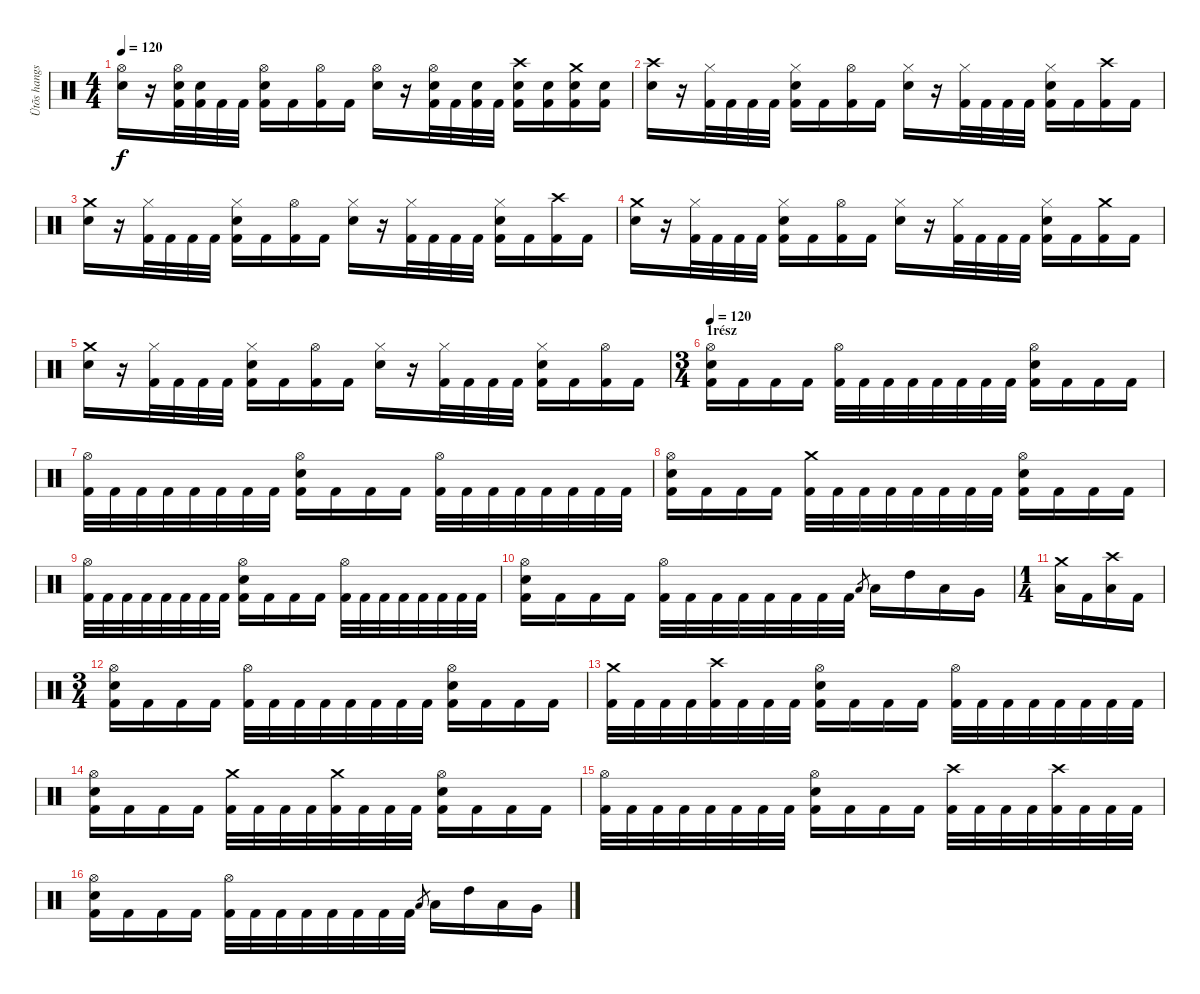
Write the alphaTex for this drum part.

\track ("Ütõs hangszer" "Ütõs hangs") {instrument percussion}
\staff {score}
\articulation defaults
\ts (4 4)
\tempo 120
\clef neutral
\ks c
("Hi-Hat (open)" "Electric Snare (hit)").16{dy f} r.16 ("Hi-Hat (open)" "Electric Snare (hit)" "Kick (hit) 2").32 ("Electric Snare (hit)" "Kick (hit) 2").32 "Kick (hit) 2".32 "Kick (hit) 2".32 ("Hi-Hat (open)" "Electric Snare (hit)" "Kick (hit) 2").16 "Kick (hit) 2".16 ("Hi-Hat (open)" "Kick (hit) 2").16 "Kick (hit) 2".16 ("Hi-Hat (open)" "Electric Snare (hit)").16 r.16 ("Hi-Hat (open)" "Electric Snare (hit)" "Kick (hit) 2").32 "Kick (hit) 2".32 ("Electric Snare (hit)" "Kick (hit) 2").32 "Kick (hit) 2".32 ("Crash high (hit)" "Electric Snare (hit)" "Kick (hit) 2").16 ("Electric Snare (hit)" "Kick (hit) 2").16 ("Crash medium (hit)" "Electric Snare (hit)" "Kick (hit) 2").16 ("Electric Snare (hit)" "Kick (hit) 2").16 |
("Crash high (hit)" "Electric Snare (hit)").16 r.16 ("Hi-Hat (closed)" "Kick (hit) 2").32 "Kick (hit) 2".32 "Kick (hit) 2".32 "Kick (hit) 2".32 ("Hi-Hat (closed)" "Electric Snare (hit)" "Kick (hit) 2").16 "Kick (hit) 2".16 ("Hi-Hat (open)" "Kick (hit) 2").16 "Kick (hit) 2".16 ("Hi-Hat (closed)" "Electric Snare (hit)").16 r.16 ("Hi-Hat (closed)" "Kick (hit) 2").32 "Kick (hit) 2".32 "Kick (hit) 2".32 "Kick (hit) 2".32 ("Hi-Hat (closed)" "Electric Snare (hit)" "Kick (hit) 2").16 "Kick (hit) 2".16 ("Crash high (hit)" "Kick (hit) 2").16 "Kick (hit) 2".16 |
("Crash medium (hit)" "Electric Snare (hit)").16 r.16 ("Hi-Hat (closed)" "Kick (hit) 2").32 "Kick (hit) 2".32 "Kick (hit) 2".32 "Kick (hit) 2".32 ("Hi-Hat (closed)" "Electric Snare (hit)" "Kick (hit) 2").16 "Kick (hit) 2".16 ("Hi-Hat (open)" "Kick (hit) 2").16 "Kick (hit) 2".16 ("Hi-Hat (closed)" "Electric Snare (hit)").16 r.16 ("Hi-Hat (closed)" "Kick (hit) 2").32 "Kick (hit) 2".32 "Kick (hit) 2".32 "Kick (hit) 2".32 ("Hi-Hat (closed)" "Electric Snare (hit)" "Kick (hit) 2").16 "Kick (hit) 2".16 ("Crash high (hit)" "Kick (hit) 2").16 "Kick (hit) 2".16 |
("Crash medium (hit)" "Electric Snare (hit)").16 r.16 ("Hi-Hat (closed)" "Kick (hit) 2").32 "Kick (hit) 2".32 "Kick (hit) 2".32 "Kick (hit) 2".32 ("Hi-Hat (closed)" "Electric Snare (hit)" "Kick (hit) 2").16 "Kick (hit) 2".16 ("Hi-Hat (open)" "Kick (hit) 2").16 "Kick (hit) 2".16 ("Hi-Hat (closed)" "Electric Snare (hit)").16 r.16 ("Hi-Hat (closed)" "Kick (hit) 2").32 "Kick (hit) 2".32 "Kick (hit) 2".32 "Kick (hit) 2".32 ("Hi-Hat (closed)" "Electric Snare (hit)" "Kick (hit) 2").16 "Kick (hit) 2".16 ("Crash medium (hit)" "Kick (hit) 2").16 "Kick (hit) 2".16 |
("Crash medium (hit)" "Electric Snare (hit)").16 r.16 ("Hi-Hat (closed)" "Kick (hit) 2").32 "Kick (hit) 2".32 "Kick (hit) 2".32 "Kick (hit) 2".32 ("Hi-Hat (closed)" "Electric Snare (hit)" "Kick (hit) 2").16 "Kick (hit) 2".16 ("Hi-Hat (open)" "Kick (hit) 2").16 "Kick (hit) 2".16 ("Hi-Hat (closed)" "Electric Snare (hit)").16 r.16 ("Hi-Hat (closed)" "Kick (hit) 2").32 "Kick (hit) 2".32 "Kick (hit) 2".32 "Kick (hit) 2".32 ("Hi-Hat (closed)" "Electric Snare (hit)" "Kick (hit) 2").16 "Kick (hit) 2".16 ("Hi-Hat (open)" "Kick (hit) 2").16 "Kick (hit) 2".16 |
\ts (3 4)
\section ("" "1rész")
\tempo 120
("Hi-Hat (open)" "Electric Snare (hit)" "Kick (hit) 2").16 "Kick (hit) 2".16 "Kick (hit) 2".16 "Kick (hit) 2".16 ("Hi-Hat (open)" "Kick (hit) 2").32 "Kick (hit) 2".32 "Kick (hit) 2".32 "Kick (hit) 2".32 "Kick (hit) 2".32 "Kick (hit) 2".32 "Kick (hit) 2".32 "Kick (hit) 2".32 ("Hi-Hat (open)" "Electric Snare (hit)" "Kick (hit) 2").16 "Kick (hit) 2".16 "Kick (hit) 2".16 "Kick (hit) 2".16 |
("Hi-Hat (open)" "Kick (hit) 2").32 "Kick (hit) 2".32 "Kick (hit) 2".32 "Kick (hit) 2".32 "Kick (hit) 2".32 "Kick (hit) 2".32 "Kick (hit) 2".32 "Kick (hit) 2".32 ("Hi-Hat (open)" "Electric Snare (hit)" "Kick (hit) 2").16 "Kick (hit) 2".16 "Kick (hit) 2".16 "Kick (hit) 2".16 ("Hi-Hat (open)" "Kick (hit) 2").32 "Kick (hit) 2".32 "Kick (hit) 2".32 "Kick (hit) 2".32 "Kick (hit) 2".32 "Kick (hit) 2".32 "Kick (hit) 2".32 "Kick (hit) 2".32 |
("Hi-Hat (open)" "Electric Snare (hit)" "Kick (hit) 2").16 "Kick (hit) 2".16 "Kick (hit) 2".16 "Kick (hit) 2".16 ("Crash medium (hit)" "Kick (hit) 2").32 "Kick (hit) 2".32 "Kick (hit) 2".32 "Kick (hit) 2".32 "Kick (hit) 2".32 "Kick (hit) 2".32 "Kick (hit) 2".32 "Kick (hit) 2".32 ("Hi-Hat (open)" "Electric Snare (hit)" "Kick (hit) 2").16 "Kick (hit) 2".16 "Kick (hit) 2".16 "Kick (hit) 2".16 |
("Hi-Hat (open)" "Kick (hit) 2").32 "Kick (hit) 2".32 "Kick (hit) 2".32 "Kick (hit) 2".32 "Kick (hit) 2".32 "Kick (hit) 2".32 "Kick (hit) 2".32 "Kick (hit) 2".32 ("Hi-Hat (open)" "Electric Snare (hit)" "Kick (hit) 2").16 "Kick (hit) 2".16 "Kick (hit) 2".16 "Kick (hit) 2".16 ("Hi-Hat (open)" "Kick (hit) 2").32 "Kick (hit) 2".32 "Kick (hit) 2".32 "Kick (hit) 2".32 "Kick (hit) 2".32 "Kick (hit) 2".32 "Kick (hit) 2".32 "Kick (hit) 2".32 |
("Hi-Hat (open)" "Electric Snare (hit)" "Kick (hit) 2").16 "Kick (hit) 2".16 "Kick (hit) 2".16 "Kick (hit) 2".16 ("Hi-Hat (open)" "Kick (hit) 2").32 "Kick (hit) 2".32 "Kick (hit) 2".32 "Kick (hit) 2".32 "Kick (hit) 2".32 "Kick (hit) 2".32 "Kick (hit) 2".32 "Kick (hit) 2".32 "Low Tom (hit)".8{gr} "Low Tom (hit)".16 "High Tom (hit)".16 "Low Tom (hit)".16 "Very Low Tom (hit)".16 |
\ts (1 4)
("Crash medium (hit)" "Low Floor Tom (hit)").16 "Kick (hit) 2".16 ("Crash high (hit)" "Low Floor Tom (hit)").16 "Kick (hit) 2".16 |
\ts (3 4)
("Hi-Hat (open)" "Electric Snare (hit)" "Kick (hit) 2").16 "Kick (hit) 2".16 "Kick (hit) 2".16 "Kick (hit) 2".16 ("Hi-Hat (open)" "Kick (hit) 2").32 "Kick (hit) 2".32 "Kick (hit) 2".32 "Kick (hit) 2".32 "Kick (hit) 2".32 "Kick (hit) 2".32 "Kick (hit) 2".32 "Kick (hit) 2".32 ("Hi-Hat (open)" "Electric Snare (hit)" "Kick (hit) 2").16 "Kick (hit) 2".16 "Kick (hit) 2".16 "Kick (hit) 2".16 |
("Crash medium (hit)" "Kick (hit) 2").32 "Kick (hit) 2".32 "Kick (hit) 2".32 "Kick (hit) 2".32 ("Crash high (hit)" "Kick (hit) 2").32 "Kick (hit) 2".32 "Kick (hit) 2".32 "Kick (hit) 2".32 ("Hi-Hat (open)" "Electric Snare (hit)" "Kick (hit) 2").16 "Kick (hit) 2".16 "Kick (hit) 2".16 "Kick (hit) 2".16 ("Hi-Hat (open)" "Kick (hit) 2").32 "Kick (hit) 2".32 "Kick (hit) 2".32 "Kick (hit) 2".32 "Kick (hit) 2".32 "Kick (hit) 2".32 "Kick (hit) 2".32 "Kick (hit) 2".32 |
("Hi-Hat (open)" "Electric Snare (hit)" "Kick (hit) 2").16 "Kick (hit) 2".16 "Kick (hit) 2".16 "Kick (hit) 2".16 ("Crash medium (hit)" "Kick (hit) 2").32 "Kick (hit) 2".32 "Kick (hit) 2".32 "Kick (hit) 2".32 ("Crash medium (hit)" "Kick (hit) 2").32 "Kick (hit) 2".32 "Kick (hit) 2".32 "Kick (hit) 2".32 ("Hi-Hat (open)" "Electric Snare (hit)" "Kick (hit) 2").16 "Kick (hit) 2".16 "Kick (hit) 2".16 "Kick (hit) 2".16 |
("Hi-Hat (open)" "Kick (hit) 2").32 "Kick (hit) 2".32 "Kick (hit) 2".32 "Kick (hit) 2".32 "Kick (hit) 2".32 "Kick (hit) 2".32 "Kick (hit) 2".32 "Kick (hit) 2".32 ("Hi-Hat (open)" "Electric Snare (hit)" "Kick (hit) 2").16 "Kick (hit) 2".16 "Kick (hit) 2".16 "Kick (hit) 2".16 ("Crash high (hit)" "Kick (hit) 2").32 "Kick (hit) 2".32 "Kick (hit) 2".32 "Kick (hit) 2".32 ("Crash high (hit)" "Kick (hit) 2").32 "Kick (hit) 2".32 "Kick (hit) 2".32 "Kick (hit) 2".32 |
("Hi-Hat (open)" "Electric Snare (hit)" "Kick (hit) 2").16 "Kick (hit) 2".16 "Kick (hit) 2".16 "Kick (hit) 2".16 ("Hi-Hat (open)" "Kick (hit) 2").32 "Kick (hit) 2".32 "Kick (hit) 2".32 "Kick (hit) 2".32 "Kick (hit) 2".32 "Kick (hit) 2".32 "Kick (hit) 2".32 "Kick (hit) 2".32 "Low Tom (hit)".8{gr} "Low Tom (hit)".16 "High Tom (hit)".16 "Low Tom (hit)".16 "Very Low Tom (hit)".16
